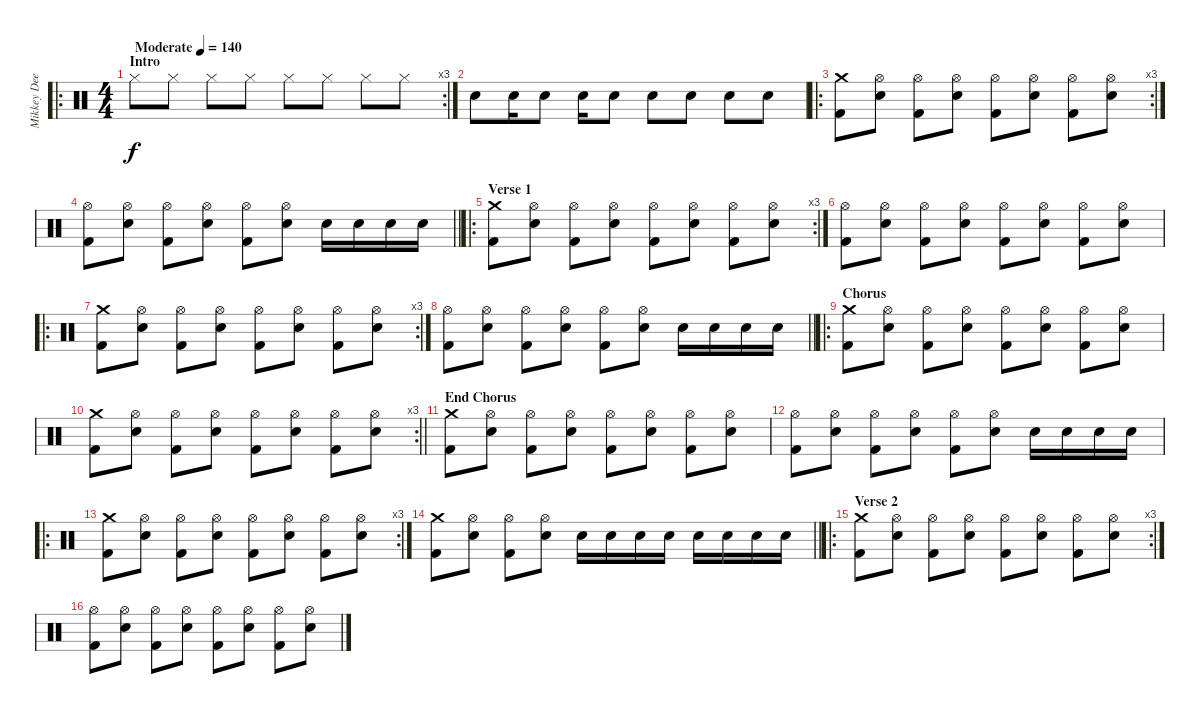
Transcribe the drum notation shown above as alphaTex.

\track ("Mikkey Dee" "Mikkey Dee") {instrument percussion}
\staff {score}
\articulation defaults
\ro
\rc 3
\ts (4 4)
\section ("" "Intro")
\tempo (140 "Moderate")
\clef neutral
\ks c "Hi-Hat (closed)".8{dy f} "Hi-Hat (closed)".8 "Hi-Hat (closed)".8 "Hi-Hat (closed)".8 "Hi-Hat (closed)".8 "Hi-Hat (closed)".8 "Hi-Hat (closed)".8 "Hi-Hat (closed)".8
|
"Electric Snare (hit)".8 "Electric Snare (hit)".16 "Electric Snare (hit)".8 "Electric Snare (hit)".16 "Electric Snare (hit)".8 "Electric Snare (hit)".8 "Electric Snare (hit)".8 "Electric Snare (hit)".8 "Electric Snare (hit)".8 |
\ro
\rc 3
("Crash medium (hit)" "Kick (hit) 2").8 ("Hi-Hat (open)" "Electric Snare (hit)").8 ("Hi-Hat (open)" "Kick (hit) 2").8 ("Hi-Hat (open)" "Electric Snare (hit)").8 ("Hi-Hat (open)" "Kick (hit) 2").8 ("Hi-Hat (open)" "Electric Snare (hit)").8 ("Hi-Hat (open)" "Kick (hit) 2").8 ("Hi-Hat (open)" "Electric Snare (hit)").8 |
\barLineRight lightlight
("Hi-Hat (open)" "Kick (hit) 2").8 ("Hi-Hat (open)" "Electric Snare (hit)").8 ("Hi-Hat (open)" "Kick (hit) 2").8 ("Hi-Hat (open)" "Electric Snare (hit)").8 ("Hi-Hat (open)" "Kick (hit) 2").8 ("Hi-Hat (open)" "Electric Snare (hit)").8 "Electric Snare (hit)".16 "Electric Snare (hit)".16 "Electric Snare (hit)".16 "Electric Snare (hit)".16 |
\ro
\rc 3
\section ("" "Verse 1")
("Crash medium (hit)" "Kick (hit) 2").8 ("Hi-Hat (open)" "Snare (hit) 2").8 ("Hi-Hat (open)" "Kick (hit) 2").8 ("Hi-Hat (open)" "Snare (hit) 2").8 ("Hi-Hat (open)" "Kick (hit) 2").8 ("Hi-Hat (open)" "Snare (hit) 2").8 ("Hi-Hat (open)" "Kick (hit) 2").8 ("Hi-Hat (open)" "Snare (hit) 2").8 |
("Hi-Hat (open)" "Kick (hit) 2").8 ("Hi-Hat (open)" "Snare (hit) 2").8 ("Hi-Hat (open)" "Kick (hit) 2").8 ("Hi-Hat (open)" "Snare (hit) 2").8 ("Hi-Hat (open)" "Kick (hit) 2").8 ("Hi-Hat (open)" "Snare (hit) 2").8 ("Hi-Hat (open)" "Kick (hit) 2").8 ("Hi-Hat (open)" "Snare (hit) 2").8 |
\ro
\rc 3
("Crash medium (hit)" "Kick (hit) 2").8 ("Hi-Hat (open)" "Snare (hit) 2").8 ("Hi-Hat (open)" "Kick (hit) 2").8 ("Hi-Hat (open)" "Snare (hit) 2").8 ("Hi-Hat (open)" "Kick (hit) 2").8 ("Hi-Hat (open)" "Snare (hit) 2").8 ("Hi-Hat (open)" "Kick (hit) 2").8 ("Hi-Hat (open)" "Snare (hit) 2").8 |
\barLineRight lightlight
("Hi-Hat (open)" "Kick (hit) 2").8 ("Hi-Hat (open)" "Electric Snare (hit)").8 ("Hi-Hat (open)" "Kick (hit) 2").8 ("Hi-Hat (open)" "Electric Snare (hit)").8 ("Hi-Hat (open)" "Kick (hit) 2").8 ("Hi-Hat (open)" "Electric Snare (hit)").8 "Electric Snare (hit)".16 "Electric Snare (hit)".16 "Electric Snare (hit)".16 "Electric Snare (hit)".16 |
\ro
\section ("" "Chorus")
("Crash medium (hit)" "Kick (hit) 2").8 ("Hi-Hat (open)" "Snare (hit) 2").8 ("Hi-Hat (open)" "Kick (hit) 2").8 ("Hi-Hat (open)" "Snare (hit) 2").8 ("Hi-Hat (open)" "Kick (hit) 2").8 ("Hi-Hat (open)" "Snare (hit) 2").8 ("Hi-Hat (open)" "Kick (hit) 2").8 ("Hi-Hat (open)" "Snare (hit) 2").8 |
\rc 3
\barLineRight lightlight
("Crash medium (hit)" "Kick (hit) 2").8 ("Hi-Hat (open)" "Snare (hit) 2").8 ("Hi-Hat (open)" "Kick (hit) 2").8 ("Hi-Hat (open)" "Snare (hit) 2").8 ("Hi-Hat (open)" "Kick (hit) 2").8 ("Hi-Hat (open)" "Snare (hit) 2").8 ("Hi-Hat (open)" "Kick (hit) 2").8 ("Hi-Hat (open)" "Snare (hit) 2").8 |
\section ("" "End Chorus")
("Crash medium (hit)" "Kick (hit) 2").8 ("Hi-Hat (open)" "Snare (hit) 2").8 ("Hi-Hat (open)" "Kick (hit) 2").8 ("Hi-Hat (open)" "Snare (hit) 2").8 ("Hi-Hat (open)" "Kick (hit) 2").8 ("Hi-Hat (open)" "Snare (hit) 2").8 ("Hi-Hat (open)" "Kick (hit) 2").8 ("Hi-Hat (open)" "Snare (hit) 2").8 |
("Hi-Hat (open)" "Kick (hit) 2").8 ("Hi-Hat (open)" "Electric Snare (hit)").8 ("Hi-Hat (open)" "Kick (hit) 2").8 ("Hi-Hat (open)" "Electric Snare (hit)").8 ("Hi-Hat (open)" "Kick (hit) 2").8 ("Hi-Hat (open)" "Electric Snare (hit)").8 "Electric Snare (hit)".16 "Electric Snare (hit)".16 "Electric Snare (hit)".16 "Electric Snare (hit)".16 |
\ro
\rc 3
("Crash medium (hit)" "Kick (hit) 2").8 ("Hi-Hat (open)" "Snare (hit) 2").8 ("Hi-Hat (open)" "Kick (hit) 2").8 ("Hi-Hat (open)" "Snare (hit) 2").8 ("Hi-Hat (open)" "Kick (hit) 2").8 ("Hi-Hat (open)" "Snare (hit) 2").8 ("Hi-Hat (open)" "Kick (hit) 2").8 ("Hi-Hat (open)" "Snare (hit) 2").8 |
\barLineRight lightlight
("Crash medium (hit)" "Kick (hit) 2").8 ("Hi-Hat (open)" "Electric Snare (hit)").8 ("Hi-Hat (open)" "Kick (hit) 2").8 ("Hi-Hat (open)" "Electric Snare (hit)").8 "Electric Snare (hit)".16 "Electric Snare (hit)".16 "Electric Snare (hit)".16 "Electric Snare (hit)".16 "Electric Snare (hit)".16 "Electric Snare (hit)".16 "Electric Snare (hit)".16 "Electric Snare (hit)".16 |
\ro
\rc 3
\section ("" "Verse 2")
("Crash medium (hit)" "Kick (hit) 2").8 ("Hi-Hat (open)" "Snare (hit) 2").8 ("Hi-Hat (open)" "Kick (hit) 2").8 ("Hi-Hat (open)" "Snare (hit) 2").8 ("Hi-Hat (open)" "Kick (hit) 2").8 ("Hi-Hat (open)" "Snare (hit) 2").8 ("Hi-Hat (open)" "Kick (hit) 2").8 ("Hi-Hat (open)" "Snare (hit) 2").8 |
("Hi-Hat (open)" "Kick (hit) 2").8 ("Hi-Hat (open)" "Snare (hit) 2").8 ("Hi-Hat (open)" "Kick (hit) 2").8 ("Hi-Hat (open)" "Snare (hit) 2").8 ("Hi-Hat (open)" "Kick (hit) 2").8 ("Hi-Hat (open)" "Snare (hit) 2").8 ("Hi-Hat (open)" "Kick (hit) 2").8 ("Hi-Hat (open)" "Snare (hit) 2").8
